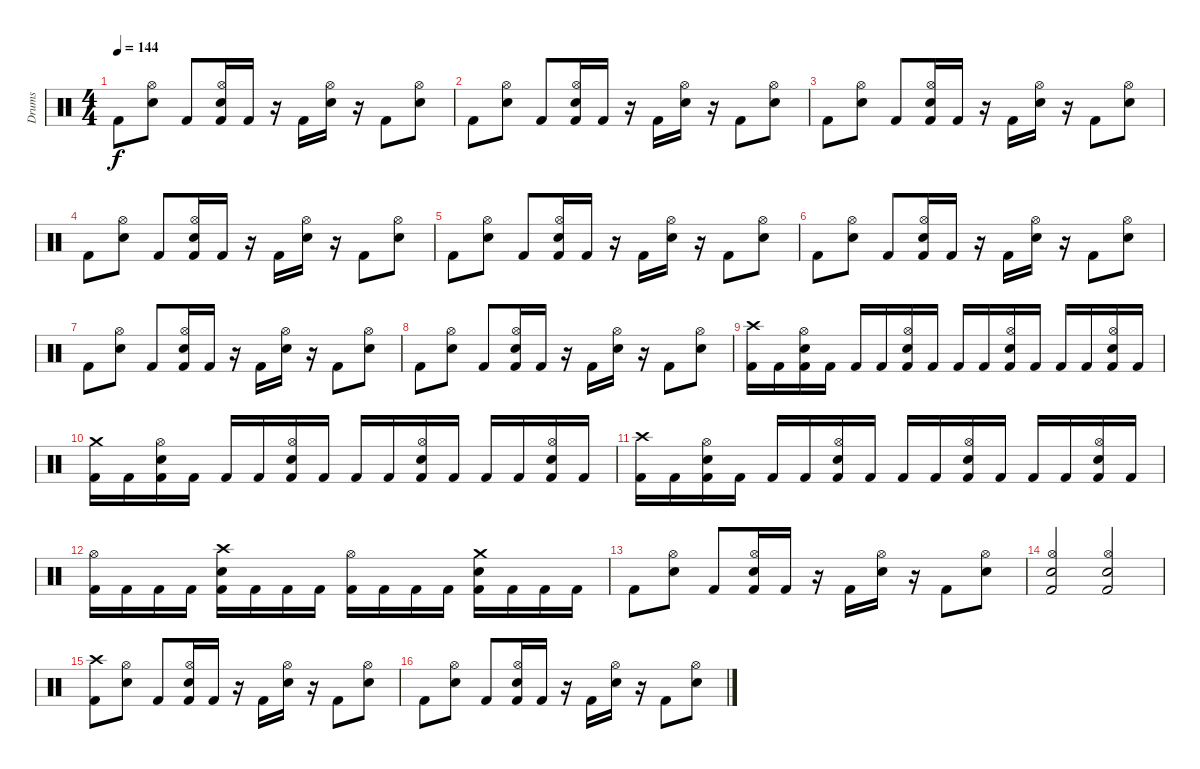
\track ("Drums" "Drums") {instrument percussion}
\staff {score}
\articulation defaults
\ts (4 4)
\tempo 144
\clef neutral
\ks c "Kick (hit) 2".8{dy f}
("Hi-Hat (open)" "Snare (hit) 2").8 "Kick (hit) 2".8 ("Hi-Hat (open)" "Snare (hit) 2" "Kick (hit) 2").16 "Kick (hit) 2".16 r.16 "Kick (hit) 2".16 ("Hi-Hat (open)" "Snare (hit) 2").16 r.16 "Kick (hit) 2".8 ("Hi-Hat (open)" "Snare (hit) 2").8 |
"Kick (hit) 2".8 ("Hi-Hat (open)" "Snare (hit) 2").8 "Kick (hit) 2".8 ("Hi-Hat (open)" "Snare (hit) 2" "Kick (hit) 2").16 "Kick (hit) 2".16 r.16 "Kick (hit) 2".16 ("Hi-Hat (open)" "Snare (hit) 2").16 r.16 "Kick (hit) 2".8 ("Hi-Hat (open)" "Snare (hit) 2").8 |
"Kick (hit) 2".8 ("Hi-Hat (open)" "Snare (hit) 2").8 "Kick (hit) 2".8 ("Hi-Hat (open)" "Snare (hit) 2" "Kick (hit) 2").16 "Kick (hit) 2".16 r.16 "Kick (hit) 2".16 ("Hi-Hat (open)" "Snare (hit) 2").16 r.16 "Kick (hit) 2".8 ("Hi-Hat (open)" "Snare (hit) 2").8 |
"Kick (hit) 2".8 ("Hi-Hat (open)" "Snare (hit) 2").8 "Kick (hit) 2".8 ("Hi-Hat (open)" "Snare (hit) 2" "Kick (hit) 2").16 "Kick (hit) 2".16 r.16 "Kick (hit) 2".16 ("Hi-Hat (open)" "Snare (hit) 2").16 r.16 "Kick (hit) 2".8 ("Hi-Hat (open)" "Snare (hit) 2").8 |
"Kick (hit) 2".8 ("Hi-Hat (open)" "Snare (hit) 2").8 "Kick (hit) 2".8 ("Hi-Hat (open)" "Snare (hit) 2" "Kick (hit) 2").16 "Kick (hit) 2".16 r.16 "Kick (hit) 2".16 ("Hi-Hat (open)" "Snare (hit) 2").16 r.16 "Kick (hit) 2".8 ("Hi-Hat (open)" "Snare (hit) 2").8 |
"Kick (hit) 2".8 ("Hi-Hat (open)" "Snare (hit) 2").8 "Kick (hit) 2".8 ("Hi-Hat (open)" "Snare (hit) 2" "Kick (hit) 2").16 "Kick (hit) 2".16 r.16 "Kick (hit) 2".16 ("Hi-Hat (open)" "Snare (hit) 2").16 r.16 "Kick (hit) 2".8 ("Hi-Hat (open)" "Snare (hit) 2").8 |
"Kick (hit) 2".8 ("Hi-Hat (open)" "Snare (hit) 2").8 "Kick (hit) 2".8 ("Hi-Hat (open)" "Snare (hit) 2" "Kick (hit) 2").16 "Kick (hit) 2".16 r.16 "Kick (hit) 2".16 ("Hi-Hat (open)" "Snare (hit) 2").16 r.16 "Kick (hit) 2".8 ("Hi-Hat (open)" "Snare (hit) 2").8 |
"Kick (hit) 2".8 ("Hi-Hat (open)" "Snare (hit) 2").8 "Kick (hit) 2".8 ("Hi-Hat (open)" "Snare (hit) 2" "Kick (hit) 2").16 "Kick (hit) 2".16 r.16 "Kick (hit) 2".16 ("Hi-Hat (open)" "Snare (hit) 2").16 r.16 "Kick (hit) 2".8 ("Hi-Hat (open)" "Snare (hit) 2").8 |
("Crash high (hit)" "Kick (hit) 2").16 "Kick (hit) 2".16 ("Hi-Hat (open)" "Snare (hit) 2" "Kick (hit) 2").16 "Kick (hit) 2".16 "Kick (hit) 2".16 "Kick (hit) 2".16 ("Hi-Hat (open)" "Snare (hit) 2" "Kick (hit) 2").16 "Kick (hit) 2".16 "Kick (hit) 2".16 "Kick (hit) 2".16 ("Hi-Hat (open)" "Snare (hit) 2" "Kick (hit) 2").16 "Kick (hit) 2".16 "Kick (hit) 2".16 "Kick (hit) 2".16 ("Hi-Hat (open)" "Snare (hit) 2" "Kick (hit) 2").16 "Kick (hit) 2".16 |
("Crash medium (hit)" "Kick (hit) 2").16 "Kick (hit) 2".16 ("Hi-Hat (open)" "Snare (hit) 2" "Kick (hit) 2").16 "Kick (hit) 2".16 "Kick (hit) 2".16 "Kick (hit) 2".16 ("Hi-Hat (open)" "Snare (hit) 2" "Kick (hit) 2").16 "Kick (hit) 2".16 "Kick (hit) 2".16 "Kick (hit) 2".16 ("Hi-Hat (open)" "Snare (hit) 2" "Kick (hit) 2").16 "Kick (hit) 2".16 "Kick (hit) 2".16 "Kick (hit) 2".16 ("Hi-Hat (open)" "Snare (hit) 2" "Kick (hit) 2").16 "Kick (hit) 2".16 |
("Crash high (hit)" "Kick (hit) 2").16 "Kick (hit) 2".16 ("Hi-Hat (open)" "Snare (hit) 2" "Kick (hit) 2").16 "Kick (hit) 2".16 "Kick (hit) 2".16 "Kick (hit) 2".16 ("Hi-Hat (open)" "Snare (hit) 2" "Kick (hit) 2").16 "Kick (hit) 2".16 "Kick (hit) 2".16 "Kick (hit) 2".16 ("Hi-Hat (open)" "Snare (hit) 2" "Kick (hit) 2").16 "Kick (hit) 2".16 "Kick (hit) 2".16 "Kick (hit) 2".16 ("Hi-Hat (open)" "Snare (hit) 2" "Kick (hit) 2").16 "Kick (hit) 2".16 |
("Hi-Hat (open)" "Kick (hit) 2").16 "Kick (hit) 2".16 "Kick (hit) 2".16 "Kick (hit) 2".16 ("Crash high (hit)" "Snare (hit) 2" "Kick (hit) 2").16 "Kick (hit) 2".16 "Kick (hit) 2".16 "Kick (hit) 2".16 ("Hi-Hat (open)" "Kick (hit) 2").16 "Kick (hit) 2".16 "Kick (hit) 2".16 "Kick (hit) 2".16 ("Crash medium (hit)" "Snare (hit) 2" "Kick (hit) 2").16 "Kick (hit) 2".16 "Kick (hit) 2".16 "Kick (hit) 2".16 |
"Kick (hit) 2".8 ("Hi-Hat (open)" "Snare (hit) 2").8 "Kick (hit) 2".8 ("Hi-Hat (open)" "Snare (hit) 2" "Kick (hit) 2").16 "Kick (hit) 2".16 r.16 "Kick (hit) 2".16 ("Hi-Hat (open)" "Snare (hit) 2").16 r.16 "Kick (hit) 2".8 ("Hi-Hat (open)" "Snare (hit) 2").8 |
("Hi-Hat (open)" "Snare (hit) 2" "Kick (hit) 2").2 ("Hi-Hat (open)" "Snare (hit) 2" "Kick (hit) 2").2 |
("Crash high (hit)" "Kick (hit) 2").8 ("Hi-Hat (open)" "Snare (hit) 2").8 "Kick (hit) 2".8 ("Hi-Hat (open)" "Snare (hit) 2" "Kick (hit) 2").16 "Kick (hit) 2".16 r.16 "Kick (hit) 2".16 ("Hi-Hat (open)" "Snare (hit) 2").16 r.16 "Kick (hit) 2".8 ("Hi-Hat (open)" "Snare (hit) 2").8 |
"Kick (hit) 2".8 ("Hi-Hat (open)" "Snare (hit) 2").8 "Kick (hit) 2".8 ("Hi-Hat (open)" "Snare (hit) 2" "Kick (hit) 2").16 "Kick (hit) 2".16 r.16 "Kick (hit) 2".16 ("Hi-Hat (open)" "Snare (hit) 2").16 r.16 "Kick (hit) 2".8 ("Hi-Hat (open)" "Snare (hit) 2").8
